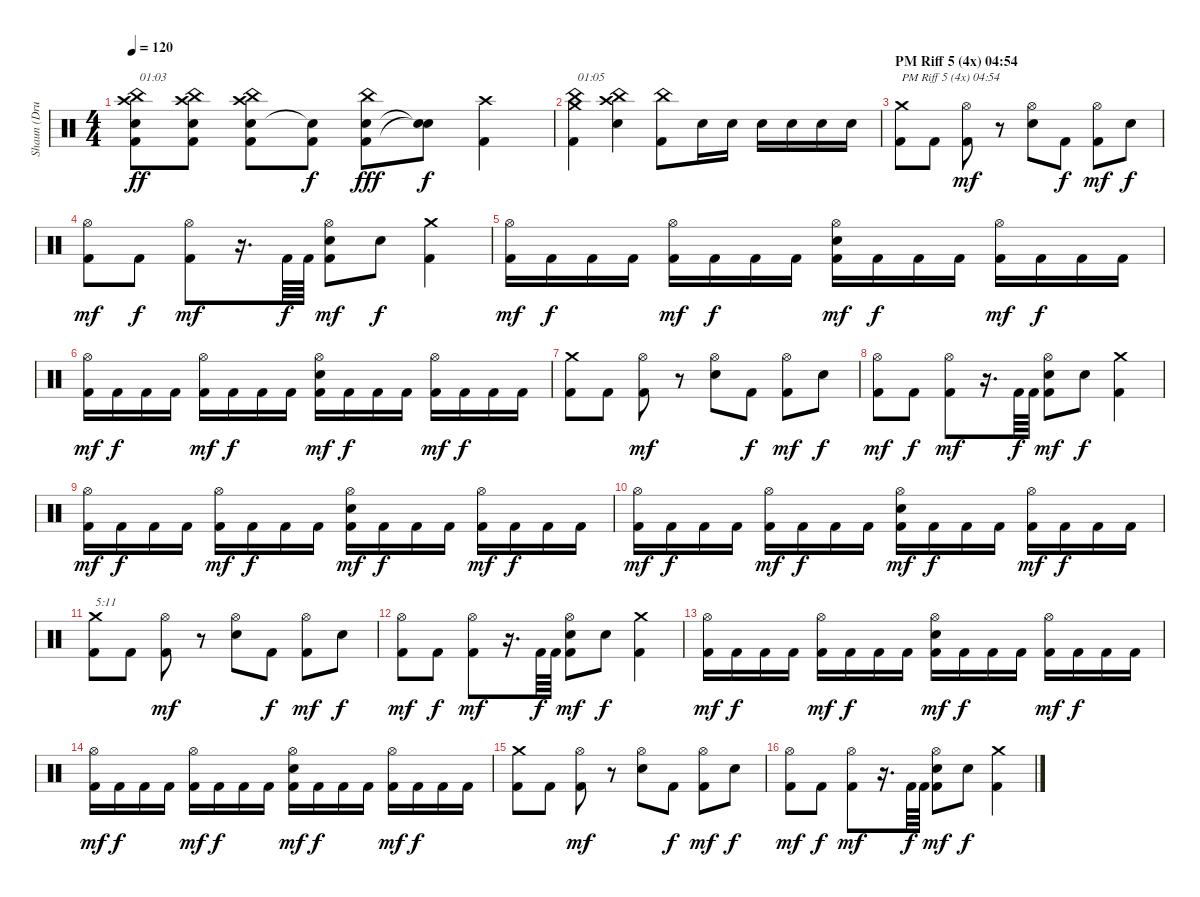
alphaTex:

\track ("Shaun (Drums Of DOOM)" "Shaun (Dru") {instrument percussion}
\staff {score}
\articulation defaults
\ts (4 4)
\tempo 120
\clef neutral
\ks c
("Kick (hit) 2" "Electric Snare (hit)" "China (hit)" "Crash high (hit)").8{txt "01:03" dy ff} ("Kick (hit) 2" "Electric Snare (hit)" "China (hit)" "Crash high (hit)").8 ("Kick (hit) 2" "Electric Snare (hit)" "China (hit)" "Crash high (hit)").8 ("Kick (hit) 2" "Snare (hit)"{t}).8{dy f} ("Kick (hit) 2" "Electric Snare (hit)" "China (hit)").8{dy fff} ("Snare (hit)"{t} "Snare (hit)"{t}).8{dy f} ("Kick (hit) 2" "Crash high (hit)").4 |
("Kick (hit) 2" "China (hit)" "Crash medium (hit)").4{txt "01:05"} ("China (hit)" "Electric Snare (hit)" "Crash high (hit)").4 ("Kick (hit) 2" "China (hit)").8 "Electric Snare (hit)".16 "Electric Snare (hit)".16 "Electric Snare (hit)".16 "Electric Snare (hit)".16 "Electric Snare (hit)".16 "Electric Snare (hit)".16 |
\section ("" "PM Riff 5 (4x) 04:54")
("Kick (hit) 2" "Crash medium (hit)").8{txt "PM Riff 5 (4x) 04:54"} "Kick (hit) 2".8 ("Kick (hit) 2" "Hi-Hat (open)").8{dy mf} r.8 ("Electric Snare (hit)" "Hi-Hat (open)").8 "Kick (hit) 2".8{dy f} ("Kick (hit) 2" "Hi-Hat (open)").8{dy mf} "Electric Snare (hit)".8{dy f} |
("Kick (hit) 2" "Hi-Hat (open)").8{dy mf} "Kick (hit) 2".8{dy f} ("Kick (hit) 2" "Hi-Hat (open)").8{dy mf} r.16{d} "Kick (hit) 2".64{dy f} "Kick (hit) 2".64 ("Kick (hit) 2" "Electric Snare (hit)" "Hi-Hat (open)").8{dy mf} "Electric Snare (hit)".8{dy f} ("Kick (hit) 2" "Crash medium (hit)").4 |
("Kick (hit) 2" "Hi-Hat (open)").16{dy mf} "Kick (hit) 2".16{dy f} "Kick (hit) 2".16 "Kick (hit) 2".16 ("Kick (hit) 2" "Hi-Hat (open)").16{dy mf} "Kick (hit) 2".16{dy f} "Kick (hit) 2".16 "Kick (hit) 2".16 ("Kick (hit) 2" "Electric Snare (hit)" "Hi-Hat (open)").16{dy mf} "Kick (hit) 2".16{dy f} "Kick (hit) 2".16 "Kick (hit) 2".16 ("Kick (hit) 2" "Hi-Hat (open)").16{dy mf} "Kick (hit) 2".16{dy f} "Kick (hit) 2".16 "Kick (hit) 2".16 |
("Kick (hit) 2" "Hi-Hat (open)").16{dy mf} "Kick (hit) 2".16{dy f} "Kick (hit) 2".16 "Kick (hit) 2".16 ("Kick (hit) 2" "Hi-Hat (open)").16{dy mf} "Kick (hit) 2".16{dy f} "Kick (hit) 2".16 "Kick (hit) 2".16 ("Kick (hit) 2" "Electric Snare (hit)" "Hi-Hat (open)").16{dy mf} "Kick (hit) 2".16{dy f} "Kick (hit) 2".16 "Kick (hit) 2".16 ("Kick (hit) 2" "Hi-Hat (open)").16{dy mf} "Kick (hit) 2".16{dy f} "Kick (hit) 2".16 "Kick (hit) 2".16 |
("Kick (hit) 2" "Crash medium (hit)").8 "Kick (hit) 2".8 ("Kick (hit) 2" "Hi-Hat (open)").8{dy mf} r.8 ("Electric Snare (hit)" "Hi-Hat (open)").8 "Kick (hit) 2".8{dy f} ("Kick (hit) 2" "Hi-Hat (open)").8{dy mf} "Electric Snare (hit)".8{dy f} |
("Kick (hit) 2" "Hi-Hat (open)").8{dy mf} "Kick (hit) 2".8{dy f} ("Kick (hit) 2" "Hi-Hat (open)").8{dy mf} r.16{d} "Kick (hit) 2".64{dy f} "Kick (hit) 2".64 ("Kick (hit) 2" "Electric Snare (hit)" "Hi-Hat (open)").8{dy mf} "Electric Snare (hit)".8{dy f} ("Kick (hit) 2" "Crash medium (hit)").4 |
("Kick (hit) 2" "Hi-Hat (open)").16{dy mf} "Kick (hit) 2".16{dy f} "Kick (hit) 2".16 "Kick (hit) 2".16 ("Kick (hit) 2" "Hi-Hat (open)").16{dy mf} "Kick (hit) 2".16{dy f} "Kick (hit) 2".16 "Kick (hit) 2".16 ("Kick (hit) 2" "Electric Snare (hit)" "Hi-Hat (open)").16{dy mf} "Kick (hit) 2".16{dy f} "Kick (hit) 2".16 "Kick (hit) 2".16 ("Kick (hit) 2" "Hi-Hat (open)").16{dy mf} "Kick (hit) 2".16{dy f} "Kick (hit) 2".16 "Kick (hit) 2".16 |
("Kick (hit) 2" "Hi-Hat (open)").16{dy mf} "Kick (hit) 2".16{dy f} "Kick (hit) 2".16 "Kick (hit) 2".16 ("Kick (hit) 2" "Hi-Hat (open)").16{dy mf} "Kick (hit) 2".16{dy f} "Kick (hit) 2".16 "Kick (hit) 2".16 ("Kick (hit) 2" "Electric Snare (hit)" "Hi-Hat (open)").16{dy mf} "Kick (hit) 2".16{dy f} "Kick (hit) 2".16 "Kick (hit) 2".16 ("Kick (hit) 2" "Hi-Hat (open)").16{dy mf} "Kick (hit) 2".16{dy f} "Kick (hit) 2".16 "Kick (hit) 2".16 |
("Kick (hit) 2" "Crash medium (hit)").8{txt "5:11"} "Kick (hit) 2".8 ("Kick (hit) 2" "Hi-Hat (open)").8{dy mf} r.8 ("Electric Snare (hit)" "Hi-Hat (open)").8 "Kick (hit) 2".8{dy f} ("Kick (hit) 2" "Hi-Hat (open)").8{dy mf} "Electric Snare (hit)".8{dy f} |
("Kick (hit) 2" "Hi-Hat (open)").8{dy mf} "Kick (hit) 2".8{dy f} ("Kick (hit) 2" "Hi-Hat (open)").8{dy mf} r.16{d} "Kick (hit) 2".64{dy f} "Kick (hit) 2".64 ("Kick (hit) 2" "Electric Snare (hit)" "Hi-Hat (open)").8{dy mf} "Electric Snare (hit)".8{dy f} ("Kick (hit) 2" "Crash medium (hit)").4 |
("Kick (hit) 2" "Hi-Hat (open)").16{dy mf} "Kick (hit) 2".16{dy f} "Kick (hit) 2".16 "Kick (hit) 2".16 ("Kick (hit) 2" "Hi-Hat (open)").16{dy mf} "Kick (hit) 2".16{dy f} "Kick (hit) 2".16 "Kick (hit) 2".16 ("Kick (hit) 2" "Electric Snare (hit)" "Hi-Hat (open)").16{dy mf} "Kick (hit) 2".16{dy f} "Kick (hit) 2".16 "Kick (hit) 2".16 ("Kick (hit) 2" "Hi-Hat (open)").16{dy mf} "Kick (hit) 2".16{dy f} "Kick (hit) 2".16 "Kick (hit) 2".16 |
("Kick (hit) 2" "Hi-Hat (open)").16{dy mf} "Kick (hit) 2".16{dy f} "Kick (hit) 2".16 "Kick (hit) 2".16 ("Kick (hit) 2" "Hi-Hat (open)").16{dy mf} "Kick (hit) 2".16{dy f} "Kick (hit) 2".16 "Kick (hit) 2".16 ("Kick (hit) 2" "Electric Snare (hit)" "Hi-Hat (open)").16{dy mf} "Kick (hit) 2".16{dy f} "Kick (hit) 2".16 "Kick (hit) 2".16 ("Kick (hit) 2" "Hi-Hat (open)").16{dy mf} "Kick (hit) 2".16{dy f} "Kick (hit) 2".16 "Kick (hit) 2".16 |
("Kick (hit) 2" "Crash medium (hit)").8 "Kick (hit) 2".8 ("Kick (hit) 2" "Hi-Hat (open)").8{dy mf} r.8 ("Electric Snare (hit)" "Hi-Hat (open)").8 "Kick (hit) 2".8{dy f} ("Kick (hit) 2" "Hi-Hat (open)").8{dy mf} "Electric Snare (hit)".8{dy f} |
("Kick (hit) 2" "Hi-Hat (open)").8{dy mf} "Kick (hit) 2".8{dy f} ("Kick (hit) 2" "Hi-Hat (open)").8{dy mf} r.16{d} "Kick (hit) 2".64{dy f} "Kick (hit) 2".64 ("Kick (hit) 2" "Electric Snare (hit)" "Hi-Hat (open)").8{dy mf} "Electric Snare (hit)".8{dy f} ("Kick (hit) 2" "Crash medium (hit)").4
